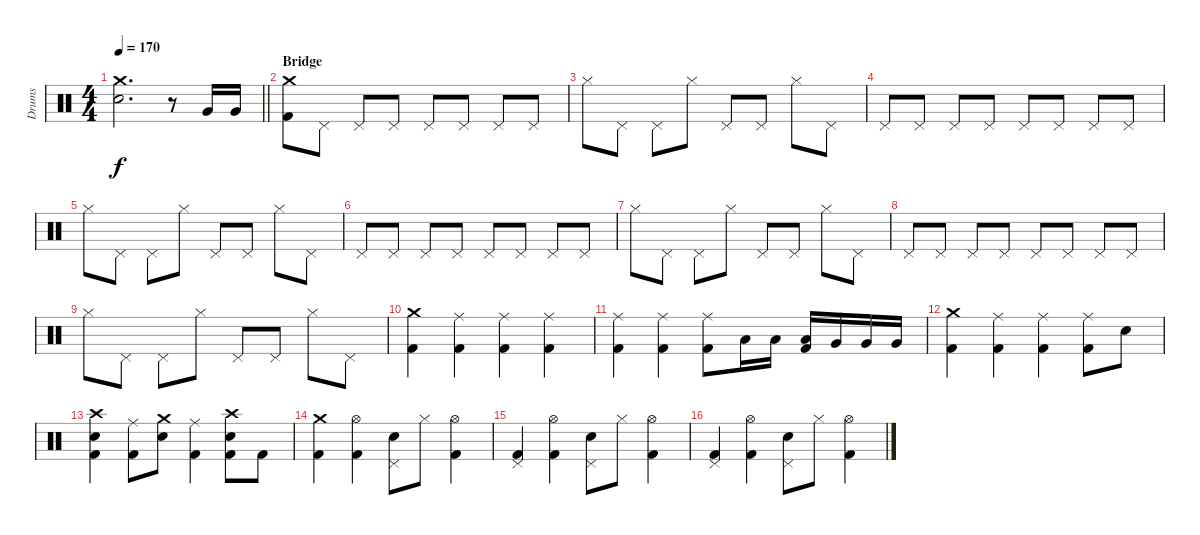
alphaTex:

\track ("Drums" "Drums") {instrument percussion}
\staff {score}
\articulation defaults
\ts (4 4)
\tempo 170
\clef neutral
\barLineRight lightlight
\ks c
("Crash medium (hit)" "Electric Snare (hit)").2{d dy f} r.8 "Very Low Tom (hit)".16 "Very Low Tom (hit)".16 |
\section ("" "Bridge")
("Crash medium (hit)" "Kick (hit) 2").8 "Pedal Hi-Hat (hit)".8 "Pedal Hi-Hat (hit)".8 "Pedal Hi-Hat (hit)".8 "Pedal Hi-Hat (hit)".8 "Pedal Hi-Hat (hit)".8 "Pedal Hi-Hat (hit)".8 "Pedal Hi-Hat (hit)".8 |
"Hi-Hat (closed)".8 "Pedal Hi-Hat (hit)".8 "Pedal Hi-Hat (hit)".8 "Hi-Hat (closed)".8 "Pedal Hi-Hat (hit)".8 "Pedal Hi-Hat (hit)".8 "Hi-Hat (closed)".8 "Pedal Hi-Hat (hit)".8 |
"Pedal Hi-Hat (hit)".8 "Pedal Hi-Hat (hit)".8 "Pedal Hi-Hat (hit)".8 "Pedal Hi-Hat (hit)".8 "Pedal Hi-Hat (hit)".8 "Pedal Hi-Hat (hit)".8 "Pedal Hi-Hat (hit)".8 "Pedal Hi-Hat (hit)".8 |
"Hi-Hat (closed)".8 "Pedal Hi-Hat (hit)".8 "Pedal Hi-Hat (hit)".8 "Hi-Hat (closed)".8 "Pedal Hi-Hat (hit)".8 "Pedal Hi-Hat (hit)".8 "Hi-Hat (closed)".8 "Pedal Hi-Hat (hit)".8 |
"Pedal Hi-Hat (hit)".8 "Pedal Hi-Hat (hit)".8 "Pedal Hi-Hat (hit)".8 "Pedal Hi-Hat (hit)".8 "Pedal Hi-Hat (hit)".8 "Pedal Hi-Hat (hit)".8 "Pedal Hi-Hat (hit)".8 "Pedal Hi-Hat (hit)".8 |
"Hi-Hat (closed)".8 "Pedal Hi-Hat (hit)".8 "Pedal Hi-Hat (hit)".8 "Hi-Hat (closed)".8 "Pedal Hi-Hat (hit)".8 "Pedal Hi-Hat (hit)".8 "Hi-Hat (closed)".8 "Pedal Hi-Hat (hit)".8 |
"Pedal Hi-Hat (hit)".8 "Pedal Hi-Hat (hit)".8 "Pedal Hi-Hat (hit)".8 "Pedal Hi-Hat (hit)".8 "Pedal Hi-Hat (hit)".8 "Pedal Hi-Hat (hit)".8 "Pedal Hi-Hat (hit)".8 "Pedal Hi-Hat (hit)".8 |
"Hi-Hat (closed)".8 "Pedal Hi-Hat (hit)".8 "Pedal Hi-Hat (hit)".8 "Hi-Hat (closed)".8 "Pedal Hi-Hat (hit)".8 "Pedal Hi-Hat (hit)".8 "Hi-Hat (closed)".8 "Pedal Hi-Hat (hit)".8 |
("Crash medium (hit)" "Kick (hit) 2").4 ("Ride (middle)" "Kick (hit) 2").4 ("Ride (middle)" "Kick (hit) 2").4 ("Ride (middle)" "Kick (hit) 2").4 |
("Ride (middle)" "Kick (hit) 2").4 ("Ride (middle)" "Kick (hit) 2").4 ("Ride (middle)" "Kick (hit) 2").8 "Low Tom (hit)".16 "Low Tom (hit)".16 ("Low Tom (hit)" "Kick (hit) 2").16 "Very Low Tom (hit)".16 "Very Low Tom (hit)".16 "Very Low Tom (hit)".16 |
("Crash medium (hit)" "Kick (hit) 2").4 ("Ride (middle)" "Kick (hit) 2").4 ("Ride (middle)" "Kick (hit) 2").4 ("Ride (middle)" "Kick (hit) 2").8 "Electric Snare (hit)".8 |
("Crash high (hit)" "Electric Snare (hit)" "Kick (hit) 2").4 ("Ride (middle)" "Kick (hit) 2").8 ("Crash medium (hit)" "Electric Snare (hit)").8 ("Ride (middle)" "Kick (hit) 2").4 ("Crash high (hit)" "Electric Snare (hit)" "Kick (hit) 2").8 "Kick (hit) 2".8 |
("Crash medium (hit)" "Kick (hit) 2").4 ("Hi-Hat (open)" "Kick (hit) 2").4 ("Pedal Hi-Hat (hit)" "Electric Snare (hit)").8 "Hi-Hat (closed)".8 ("Hi-Hat (open)" "Kick (hit) 2").4 |
("Pedal Hi-Hat (hit)" "Kick (hit) 2").4 ("Hi-Hat (open)" "Kick (hit) 2").4 ("Pedal Hi-Hat (hit)" "Electric Snare (hit)").8 "Hi-Hat (closed)".8 ("Hi-Hat (open)" "Kick (hit) 2").4 |
("Pedal Hi-Hat (hit)" "Kick (hit) 2").4 ("Hi-Hat (open)" "Kick (hit) 2").4 ("Pedal Hi-Hat (hit)" "Electric Snare (hit)").8 "Hi-Hat (closed)".8 ("Hi-Hat (open)" "Kick (hit) 2").4
